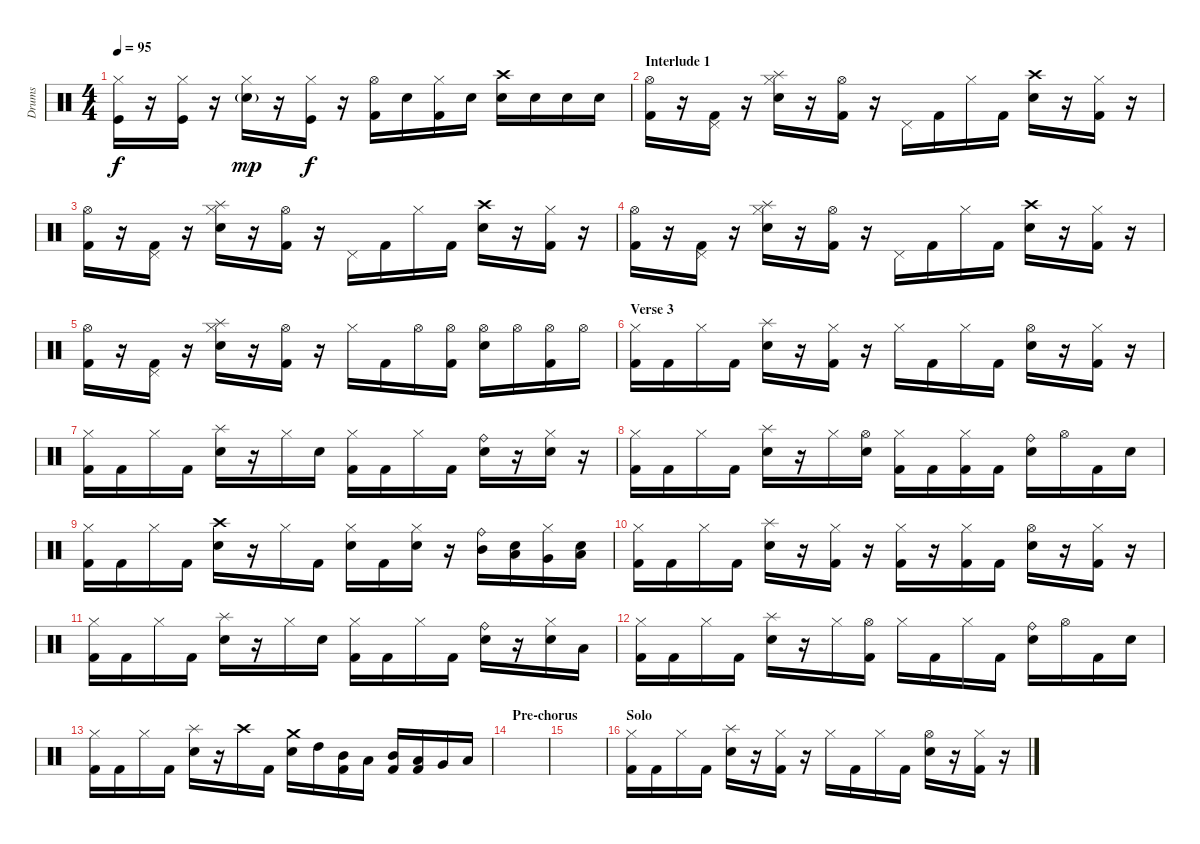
\track ("Drums" "Drums") {instrument percussion}
\staff {score}
\articulation defaults
\ts (4 4)
\tempo 95
\clef neutral
\ks c
("Hi-Hat (closed)" "Kick (hit)").16{dy f} r.16 ("Hi-Hat (closed)" "Kick (hit)").16 r.16 ("Hi-Hat (closed)" "Electric Snare (hit)"{g}).16{dy mp} r.16 ("Hi-Hat (closed)" "Kick (hit)").16{dy f} r.16 ("Hi-Hat (open)" "Kick (hit) 2").16 "Electric Snare (hit)".16 ("Hi-Hat (closed)" "Kick (hit) 2").16 "Electric Snare (hit)".16 ("Crash high (hit)" "Electric Snare (hit)").16 "Electric Snare (hit)".16 "Electric Snare (hit)".16 "Electric Snare (hit)".16 |
\section ("" "Interlude 1")
("Hi-Hat (open)" "Kick (hit) 2").16 r.16 ("Pedal Hi-Hat (hit)" "Kick (hit) 2").16 r.16 ("Hi-Hat (closed)" "Electric Snare (hit)" "Splash (hit)").16 r.16 ("Hi-Hat (open)" "Kick (hit) 2").16 r.16 "Pedal Hi-Hat (hit)".16 "Kick (hit) 2".16 "Hi-Hat (closed)".16 "Kick (hit) 2".16 ("Crash high (hit)" "Electric Snare (hit)").16 r.16 ("Hi-Hat (closed)" "Kick (hit) 2").16 r.16 |
("Hi-Hat (open)" "Kick (hit) 2").16 r.16 ("Pedal Hi-Hat (hit)" "Kick (hit) 2").16 r.16 ("Hi-Hat (closed)" "Electric Snare (hit)" "Splash (hit)").16 r.16 ("Hi-Hat (open)" "Kick (hit) 2").16 r.16 "Pedal Hi-Hat (hit)".16 "Kick (hit) 2".16 "Hi-Hat (closed)".16 "Kick (hit) 2".16 ("Crash high (hit)" "Electric Snare (hit)").16 r.16 ("Hi-Hat (closed)" "Kick (hit) 2").16 r.16 |
("Hi-Hat (open)" "Kick (hit) 2").16 r.16 ("Pedal Hi-Hat (hit)" "Kick (hit) 2").16 r.16 ("Hi-Hat (closed)" "Electric Snare (hit)" "Splash (hit)").16 r.16 ("Hi-Hat (open)" "Kick (hit) 2").16 r.16 "Pedal Hi-Hat (hit)".16 "Kick (hit) 2".16 "Hi-Hat (closed)".16 "Kick (hit) 2".16 ("Crash high (hit)" "Electric Snare (hit)").16 r.16 ("Hi-Hat (closed)" "Kick (hit) 2").16 r.16 |
("Hi-Hat (open)" "Kick (hit) 2").16 r.16 ("Pedal Hi-Hat (hit)" "Kick (hit) 2").16 r.16 ("Hi-Hat (closed)" "Electric Snare (hit)" "Splash (hit)").16 r.16 ("Hi-Hat (open)" "Kick (hit) 2").16 r.16 "Hi-Hat (closed)".16 "Kick (hit) 2".16 "Hi-Hat (open)".16 ("Hi-Hat (open)" "Kick (hit) 2").16 ("Hi-Hat (open)" "Electric Snare (hit)").16 "Hi-Hat (open)".16 ("Hi-Hat (open)" "Kick (hit) 2").16 "Hi-Hat (open)".16 |
\section ("" "Verse 3")
("Hi-Hat (closed)" "Kick (hit) 2").16 "Kick (hit) 2".16 "Hi-Hat (closed)".16 "Kick (hit) 2".16 ("Electric Snare (hit)" "Splash (hit)").16 r.16 ("Hi-Hat (closed)" "Kick (hit) 2").16 r.16 "Hi-Hat (closed)".16 "Kick (hit) 2".16 "Hi-Hat (closed)".16 "Kick (hit) 2".16 ("Hi-Hat (open)" "Electric Snare (hit)").16 r.16 ("Hi-Hat (closed)" "Kick (hit) 2").16 r.16 |
("Hi-Hat (closed)" "Kick (hit) 2").16 "Kick (hit) 2".16 "Hi-Hat (closed)".16 "Kick (hit) 2".16 ("Electric Snare (hit)" "Splash (hit)").16 r.16 "Hi-Hat (closed)".16 "Electric Snare (hit)".16 ("Hi-Hat (closed)" "Kick (hit) 2").16 "Kick (hit) 2".16 "Hi-Hat (closed)".16 "Kick (hit) 2".16 ("Electric Snare (hit)" "Ride (bell)").16 r.16 ("Hi-Hat (closed)" "Electric Snare (hit)").16 r.16 |
("Hi-Hat (closed)" "Kick (hit) 2").16 "Kick (hit) 2".16 "Hi-Hat (closed)".16 "Kick (hit) 2".16 ("Electric Snare (hit)" "Splash (hit)").16 r.16 "Hi-Hat (closed)".16 ("Hi-Hat (open)" "Electric Snare (hit)").16 ("Hi-Hat (closed)" "Kick (hit) 2").16 "Kick (hit) 2".16 ("Hi-Hat (closed)" "Kick (hit) 2").16 "Kick (hit) 2".16 ("Electric Snare (hit)" "Ride (bell)").16 "Hi-Hat (open)".16 "Kick (hit) 2".16 "Electric Snare (hit)".16 |
("Hi-Hat (closed)" "Kick (hit) 2").16 "Kick (hit) 2".16 "Hi-Hat (closed)".16 "Kick (hit) 2".16 ("Electric Snare (hit)" "Crash high (hit)").16 r.16 "Hi-Hat (closed)".16 "Kick (hit) 2".16 ("Hi-Hat (closed)" "Electric Snare (hit)").16 "Kick (hit) 2".16 ("Hi-Hat (closed)" "Electric Snare (hit)"{tr (40 32)}).16 r.16 ("Mid Tom (hit)" "Ride (bell)").16 ("Low Tom (hit)" "Electric Snare (hit)").16 ("Hi-Hat (closed)" "Very Low Tom (hit)").16 ("Low Floor Tom (hit)" "Electric Snare (hit)").16 |
("Hi-Hat (closed)" "Kick (hit) 2").16 "Kick (hit) 2".16 "Hi-Hat (closed)".16 "Kick (hit) 2".16 ("Electric Snare (hit)" "Splash (hit)").16 r.16 ("Hi-Hat (closed)" "Kick (hit) 2").16 r.16 ("Hi-Hat (closed)" "Kick (hit) 2").16 r.16 ("Hi-Hat (closed)" "Kick (hit) 2").16 "Kick (hit) 2".16 ("Hi-Hat (open)" "Electric Snare (hit)").16 r.16 ("Hi-Hat (closed)" "Kick (hit) 2").16 r.16 |
("Hi-Hat (closed)" "Kick (hit) 2").16 "Kick (hit) 2".16 "Hi-Hat (closed)".16 "Kick (hit) 2".16 ("Electric Snare (hit)" "Splash (hit)").16 r.16 "Hi-Hat (closed)".16 "Electric Snare (hit)".16 ("Hi-Hat (closed)" "Kick (hit) 2").16 "Kick (hit) 2".16 "Hi-Hat (closed)".16 "Kick (hit) 2".16 ("Electric Snare (hit)"{tr (40 32)} "Ride (bell)").16 r.16 ("Hi-Hat (closed)" "Electric Snare (hit)").16 "Low Tom (hit)".16 |
("Hi-Hat (closed)" "Kick (hit) 2").16 "Kick (hit) 2".16 "Hi-Hat (closed)".16 "Kick (hit) 2".16 ("Electric Snare (hit)" "Splash (hit)").16 r.16 "Hi-Hat (closed)".16 ("Hi-Hat (open)" "Kick (hit) 2").16 "Hi-Hat (closed)".16 "Kick (hit) 2".16 "Hi-Hat (closed)".16 "Kick (hit) 2".16 ("Electric Snare (hit)" "Ride (bell)").16 "Hi-Hat (open)".16 "Kick (hit) 2".16 "Electric Snare (hit)".16 |
("Hi-Hat (closed)" "Kick (hit) 2").16 "Kick (hit) 2".16 "Hi-Hat (closed)".16 "Kick (hit) 2".16 ("Electric Snare (hit)" "Splash (hit)").16 r.16 "Crash high (hit)".16 "Kick (hit) 2".16 ("Crash medium (hit)" "Electric Snare (hit)").16 "High Tom (hit)".16 ("Mid Tom (hit)" "Kick (hit) 2").16 "Low Tom (hit)".16 ("Mid Tom (hit)" "Kick (hit) 2").16 ("Low Tom (hit)" "Kick (hit) 2").16 "Very Low Tom (hit)".16 "Low Floor Tom (hit)".16 |
\section ("" "Pre-chorus")
|
|
\section ("" "Solo")
("Hi-Hat (closed)" "Kick (hit) 2").16 "Kick (hit) 2".16 "Hi-Hat (closed)".16 "Kick (hit) 2".16 ("Electric Snare (hit)" "Splash (hit)").16 r.16 ("Hi-Hat (closed)" "Kick (hit) 2").16 r.16 "Hi-Hat (closed)".16 "Kick (hit) 2".16 "Hi-Hat (closed)".16 "Kick (hit) 2".16 ("Hi-Hat (open)" "Electric Snare (hit)").16 r.16 ("Hi-Hat (closed)" "Kick (hit) 2").16 r.16
